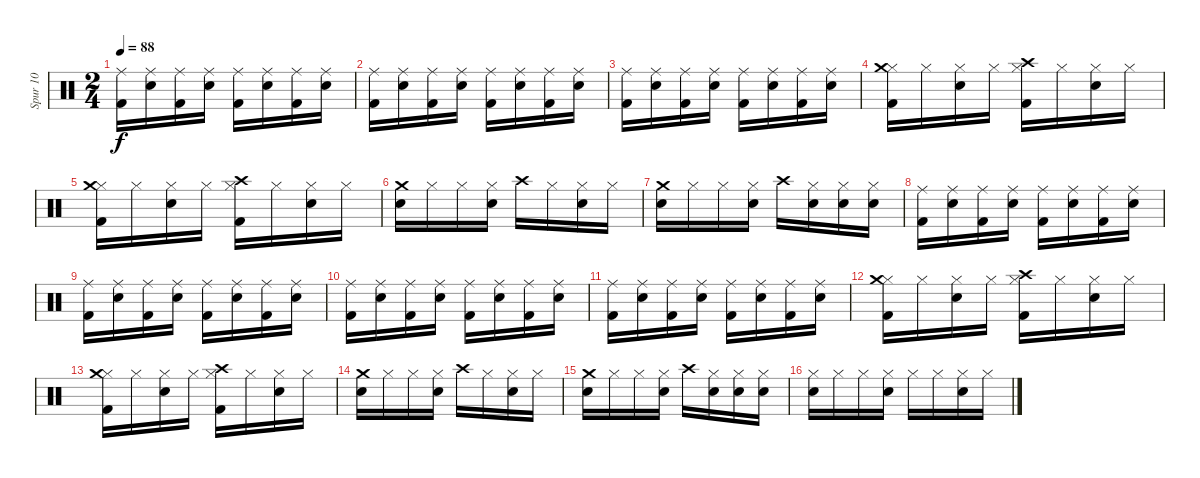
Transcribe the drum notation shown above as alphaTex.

\track ("Spur 10" "Spur 10") {instrument percussion}
\staff {score}
\articulation defaults
\ts (2 4)
\tempo 88
\clef neutral
\ks c
("Ride (middle)" "Kick (hit) 2").16{dy f} ("Ride (middle)" "Snare (hit) 2").16 ("Ride (middle)" "Kick (hit) 2").16 ("Ride (middle)" "Snare (hit) 2").16 ("Ride (middle)" "Kick (hit) 2").16 ("Ride (middle)" "Snare (hit) 2").16 ("Ride (middle)" "Kick (hit) 2").16 ("Ride (middle)" "Snare (hit) 2").16 |
("Ride (middle)" "Kick (hit) 2").16 ("Ride (middle)" "Snare (hit) 2").16 ("Ride (middle)" "Kick (hit) 2").16 ("Ride (middle)" "Snare (hit) 2").16 ("Ride (middle)" "Kick (hit) 2").16 ("Ride (middle)" "Snare (hit) 2").16 ("Ride (middle)" "Kick (hit) 2").16 ("Ride (middle)" "Snare (hit) 2").16 |
("Ride (middle)" "Kick (hit) 2").16 ("Ride (middle)" "Snare (hit) 2").16 ("Ride (middle)" "Kick (hit) 2").16 ("Ride (middle)" "Snare (hit) 2").16 ("Ride (middle)" "Kick (hit) 2").16 ("Ride (middle)" "Snare (hit) 2").16 ("Ride (middle)" "Kick (hit) 2").16 ("Ride (middle)" "Snare (hit) 2").16 |
("Hi-Hat (closed)" "Crash medium (hit)" "Kick (hit) 2").16 "Hi-Hat (closed)".16 ("Hi-Hat (closed)" "Electric Snare (hit)").16 "Hi-Hat (closed)".16 ("Hi-Hat (closed)" "Crash high (hit)" "Kick (hit) 2").16 "Hi-Hat (closed)".16 ("Hi-Hat (closed)" "Electric Snare (hit)").16 "Hi-Hat (closed)".16 |
("Hi-Hat (closed)" "Crash medium (hit)" "Kick (hit) 2").16 "Hi-Hat (closed)".16 ("Hi-Hat (closed)" "Electric Snare (hit)").16 "Hi-Hat (closed)".16 ("Hi-Hat (closed)" "Crash high (hit)" "Kick (hit) 2").16 "Hi-Hat (closed)".16 ("Hi-Hat (closed)" "Electric Snare (hit)").16 "Hi-Hat (closed)".16 |
("Snare (hit) 2" "Crash medium (hit)").16 "Hi-Hat (closed)".16 "Hi-Hat (closed)".16 ("Snare (hit) 2" "Hi-Hat (closed)").16 "Crash high (hit)".16 "Hi-Hat (closed)".16 ("Snare (hit) 2" "Hi-Hat (closed)").16 "Hi-Hat (closed)".16 |
("Snare (hit) 2" "Crash medium (hit)").16 "Hi-Hat (closed)".16 "Hi-Hat (closed)".16 ("Electric Snare (hit)" "Hi-Hat (closed)").16 "Crash high (hit)".16 ("Electric Snare (hit)" "Hi-Hat (closed)").16 ("Snare (hit) 2" "Hi-Hat (closed)").16 ("Electric Snare (hit)" "Hi-Hat (closed)").16 |
("Ride (middle)" "Kick (hit) 2").16 ("Ride (middle)" "Snare (hit) 2").16 ("Ride (middle)" "Kick (hit) 2").16 ("Ride (middle)" "Snare (hit) 2").16 ("Ride (middle)" "Kick (hit) 2").16 ("Ride (middle)" "Snare (hit) 2").16 ("Ride (middle)" "Kick (hit) 2").16 ("Ride (middle)" "Snare (hit) 2").16 |
("Ride (middle)" "Kick (hit) 2").16 ("Ride (middle)" "Snare (hit) 2").16 ("Ride (middle)" "Kick (hit) 2").16 ("Ride (middle)" "Snare (hit) 2").16 ("Ride (middle)" "Kick (hit) 2").16 ("Ride (middle)" "Snare (hit) 2").16 ("Ride (middle)" "Kick (hit) 2").16 ("Ride (middle)" "Snare (hit) 2").16 |
("Ride (middle)" "Kick (hit) 2").16 ("Ride (middle)" "Snare (hit) 2").16 ("Ride (middle)" "Kick (hit) 2").16 ("Ride (middle)" "Snare (hit) 2").16 ("Ride (middle)" "Kick (hit) 2").16 ("Ride (middle)" "Snare (hit) 2").16 ("Ride (middle)" "Kick (hit) 2").16 ("Ride (middle)" "Snare (hit) 2").16 |
("Ride (middle)" "Kick (hit) 2").16 ("Ride (middle)" "Snare (hit) 2").16 ("Ride (middle)" "Kick (hit) 2").16 ("Ride (middle)" "Snare (hit) 2").16 ("Ride (middle)" "Kick (hit) 2").16 ("Ride (middle)" "Snare (hit) 2").16 ("Ride (middle)" "Kick (hit) 2").16 ("Ride (middle)" "Snare (hit) 2").16 |
("Hi-Hat (closed)" "Crash medium (hit)" "Kick (hit) 2").16 "Hi-Hat (closed)".16 ("Hi-Hat (closed)" "Electric Snare (hit)").16 "Hi-Hat (closed)".16 ("Hi-Hat (closed)" "Crash high (hit)" "Kick (hit) 2").16 "Hi-Hat (closed)".16 ("Hi-Hat (closed)" "Electric Snare (hit)").16 "Hi-Hat (closed)".16 |
("Hi-Hat (closed)" "Crash medium (hit)" "Kick (hit) 2").16 "Hi-Hat (closed)".16 ("Hi-Hat (closed)" "Electric Snare (hit)").16 "Hi-Hat (closed)".16 ("Hi-Hat (closed)" "Crash high (hit)" "Kick (hit) 2").16 "Hi-Hat (closed)".16 ("Hi-Hat (closed)" "Electric Snare (hit)").16 "Hi-Hat (closed)".16 |
("Snare (hit) 2" "Crash medium (hit)").16 "Hi-Hat (closed)".16 "Hi-Hat (closed)".16 ("Snare (hit) 2" "Hi-Hat (closed)").16 "Crash high (hit)".16 "Hi-Hat (closed)".16 ("Snare (hit) 2" "Hi-Hat (closed)").16 "Hi-Hat (closed)".16 |
("Snare (hit) 2" "Crash medium (hit)").16 "Hi-Hat (closed)".16 "Hi-Hat (closed)".16 ("Electric Snare (hit)" "Hi-Hat (closed)").16 "Crash high (hit)".16 ("Electric Snare (hit)" "Hi-Hat (closed)").16 ("Snare (hit) 2" "Hi-Hat (closed)").16 ("Electric Snare (hit)" "Hi-Hat (closed)").16 |
("Snare (hit) 2" "Hi-Hat (closed)").16 "Hi-Hat (closed)".16 "Hi-Hat (closed)".16 ("Electric Snare (hit)" "Hi-Hat (closed)").16 "Hi-Hat (closed)".16 "Hi-Hat (closed)".16 ("Snare (hit) 2" "Hi-Hat (closed)").16 "Hi-Hat (closed)".16
